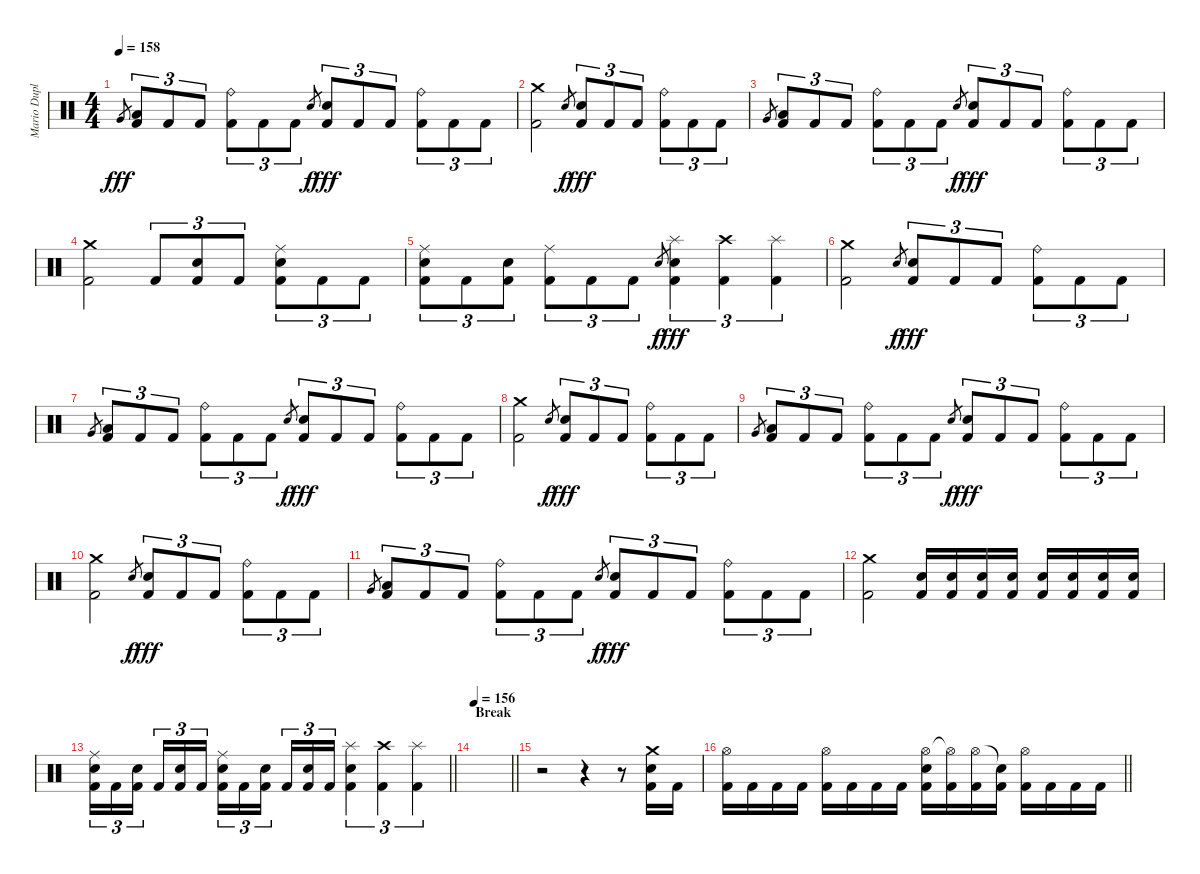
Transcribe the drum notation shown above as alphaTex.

\track ("Mario Duplantier" "Mario Dupl") {instrument percussion}
\staff {score}
\articulation defaults
\ts (4 4)
\tempo 158
\clef neutral
\ks c "Very Low Tom (hit)".8{gr dy fff}
("Low Tom (hit)" "Kick (hit) 2").8{tu (3 2)} "Kick (hit) 2".8{tu (3 2)} "Kick (hit) 2".8{tu (3 2)} ("Ride (bell)" "Kick (hit) 2").8{tu (3 2)} "Kick (hit) 2".8{tu (3 2)} "Kick (hit) 2".8{tu (3 2)} "Electric Snare (hit)".8{gr dy f} ("Electric Snare (hit)" "Kick (hit) 2").8{tu (3 2) dy fff} "Kick (hit) 2".8{tu (3 2)} "Kick (hit) 2".8{tu (3 2)} ("Ride (bell)" "Kick (hit) 2").8{tu (3 2)} "Kick (hit) 2".8{tu (3 2)} "Kick (hit) 2".8{tu (3 2)} |
("Crash medium (hit)" "Kick (hit) 2").2 "Electric Snare (hit)".8{gr dy f} ("Electric Snare (hit)" "Kick (hit) 2").8{tu (3 2) dy fff} "Kick (hit) 2".8{tu (3 2)} "Kick (hit) 2".8{tu (3 2)} ("Ride (bell)" "Kick (hit) 2").8{tu (3 2)} "Kick (hit) 2".8{tu (3 2)} "Kick (hit) 2".8{tu (3 2)} |
"Very Low Tom (hit)".8{gr} ("Low Tom (hit)" "Kick (hit) 2").8{tu (3 2)} "Kick (hit) 2".8{tu (3 2)} "Kick (hit) 2".8{tu (3 2)} ("Ride (bell)" "Kick (hit) 2").8{tu (3 2)} "Kick (hit) 2".8{tu (3 2)} "Kick (hit) 2".8{tu (3 2)} "Electric Snare (hit)".8{gr dy f} ("Electric Snare (hit)" "Kick (hit) 2").8{tu (3 2) dy fff} "Kick (hit) 2".8{tu (3 2)} "Kick (hit) 2".8{tu (3 2)} ("Ride (bell)" "Kick (hit) 2").8{tu (3 2)} "Kick (hit) 2".8{tu (3 2)} "Kick (hit) 2".8{tu (3 2)} |
("Crash medium (hit)" "Kick (hit) 2").2 "Kick (hit) 2".8{tu (3 2)} ("Electric Snare (hit)" "Kick (hit) 2").8{tu (3 2)} "Kick (hit) 2".8{tu (3 2)} ("Ride (middle)" "Electric Snare (hit)" "Kick (hit) 2").8{tu (3 2)} "Kick (hit) 2".8{tu (3 2)} "Kick (hit) 2".8{tu (3 2)} |
("Ride (middle)" "Electric Snare (hit)" "Kick (hit) 2").8{tu (3 2)} "Kick (hit) 2".8{tu (3 2)} ("Electric Snare (hit)" "Kick (hit) 2").8{tu (3 2)} ("Ride (middle)" "Kick (hit) 2").8{tu (3 2)} "Kick (hit) 2".8{tu (3 2)} "Kick (hit) 2".8{tu (3 2)} "Electric Snare (hit)".8{gr dy f} ("Splash (hit)" "Electric Snare (hit)" "Kick (hit) 2").4{tu (3 2) dy fff} ("Crash high (hit)" "Kick (hit) 2").4{tu (3 2)} ("Splash (hit)" "Kick (hit) 2").4{tu (3 2)} |
("Crash medium (hit)" "Kick (hit) 2").2 "Electric Snare (hit)".8{gr dy f} ("Electric Snare (hit)" "Kick (hit) 2").8{tu (3 2) dy fff} "Kick (hit) 2".8{tu (3 2)} "Kick (hit) 2".8{tu (3 2)} ("Ride (bell)" "Kick (hit) 2").8{tu (3 2)} "Kick (hit) 2".8{tu (3 2)} "Kick (hit) 2".8{tu (3 2)} |
"Very Low Tom (hit)".8{gr} ("Low Tom (hit)" "Kick (hit) 2").8{tu (3 2)} "Kick (hit) 2".8{tu (3 2)} "Kick (hit) 2".8{tu (3 2)} ("Ride (bell)" "Kick (hit) 2").8{tu (3 2)} "Kick (hit) 2".8{tu (3 2)} "Kick (hit) 2".8{tu (3 2)} "Electric Snare (hit)".8{gr dy f} ("Electric Snare (hit)" "Kick (hit) 2").8{tu (3 2) dy fff} "Kick (hit) 2".8{tu (3 2)} "Kick (hit) 2".8{tu (3 2)} ("Ride (bell)" "Kick (hit) 2").8{tu (3 2)} "Kick (hit) 2".8{tu (3 2)} "Kick (hit) 2".8{tu (3 2)} |
("Crash medium (hit)" "Kick (hit) 2").2 "Electric Snare (hit)".8{gr dy f} ("Electric Snare (hit)" "Kick (hit) 2").8{tu (3 2) dy fff} "Kick (hit) 2".8{tu (3 2)} "Kick (hit) 2".8{tu (3 2)} ("Ride (bell)" "Kick (hit) 2").8{tu (3 2)} "Kick (hit) 2".8{tu (3 2)} "Kick (hit) 2".8{tu (3 2)} |
"Very Low Tom (hit)".8{gr} ("Low Tom (hit)" "Kick (hit) 2").8{tu (3 2)} "Kick (hit) 2".8{tu (3 2)} "Kick (hit) 2".8{tu (3 2)} ("Ride (bell)" "Kick (hit) 2").8{tu (3 2)} "Kick (hit) 2".8{tu (3 2)} "Kick (hit) 2".8{tu (3 2)} "Electric Snare (hit)".8{gr dy f} ("Electric Snare (hit)" "Kick (hit) 2").8{tu (3 2) dy fff} "Kick (hit) 2".8{tu (3 2)} "Kick (hit) 2".8{tu (3 2)} ("Ride (bell)" "Kick (hit) 2").8{tu (3 2)} "Kick (hit) 2".8{tu (3 2)} "Kick (hit) 2".8{tu (3 2)} |
("Crash medium (hit)" "Kick (hit) 2").2 "Electric Snare (hit)".8{gr dy f} ("Electric Snare (hit)" "Kick (hit) 2").8{tu (3 2) dy fff} "Kick (hit) 2".8{tu (3 2)} "Kick (hit) 2".8{tu (3 2)} ("Ride (bell)" "Kick (hit) 2").8{tu (3 2)} "Kick (hit) 2".8{tu (3 2)} "Kick (hit) 2".8{tu (3 2)} |
"Very Low Tom (hit)".8{gr} ("Low Tom (hit)" "Kick (hit) 2").8{tu (3 2)} "Kick (hit) 2".8{tu (3 2)} "Kick (hit) 2".8{tu (3 2)} ("Ride (bell)" "Kick (hit) 2").8{tu (3 2)} "Kick (hit) 2".8{tu (3 2)} "Kick (hit) 2".8{tu (3 2)} "Electric Snare (hit)".8{gr dy f} ("Electric Snare (hit)" "Kick (hit) 2").8{tu (3 2) dy fff} "Kick (hit) 2".8{tu (3 2)} "Kick (hit) 2".8{tu (3 2)} ("Ride (bell)" "Kick (hit) 2").8{tu (3 2)} "Kick (hit) 2".8{tu (3 2)} "Kick (hit) 2".8{tu (3 2)} |
("Crash medium (hit)" "Kick (hit) 2").2 ("Electric Snare (hit)" "Kick (hit) 2").16 ("Electric Snare (hit)" "Kick (hit) 2").16 ("Electric Snare (hit)" "Kick (hit) 2").16 ("Electric Snare (hit)" "Kick (hit) 2").16 ("Electric Snare (hit)" "Kick (hit) 2").16 ("Electric Snare (hit)" "Kick (hit) 2").16 ("Electric Snare (hit)" "Kick (hit) 2").16 ("Electric Snare (hit)" "Kick (hit) 2").16 |
\barLineRight lightlight
("Ride (middle)" "Electric Snare (hit)" "Kick (hit) 2").16{tu (3 2)} "Kick (hit) 2".16{tu (3 2)} ("Electric Snare (hit)" "Kick (hit) 2").16{tu (3 2) beam splitsecondary} "Kick (hit) 2".16{tu (3 2)} ("Electric Snare (hit)" "Kick (hit) 2").16{tu (3 2)} "Kick (hit) 2".16{tu (3 2)} ("Ride (middle)" "Electric Snare (hit)" "Kick (hit) 2").16{tu (3 2)} "Kick (hit) 2".16{tu (3 2)} ("Electric Snare (hit)" "Kick (hit) 2").16{tu (3 2) beam splitsecondary} "Kick (hit) 2".16{tu (3 2)} ("Electric Snare (hit)" "Kick (hit) 2").16{tu (3 2)} "Kick (hit) 2".16{tu (3 2)} ("Splash (hit)" "Electric Snare (hit)" "Kick (hit) 2").4{tu (3 2)} ("Crash high (hit)" "Kick (hit) 2").4{tu (3 2)} ("Splash (hit)" "Kick (hit) 2").4{tu (3 2)} |
\section ("" "Break")
\tempo 156
\barLineRight lightlight
|
r.2 r.4 r.8 ("Crash medium (hit)" "Electric Snare (hit)" "Kick (hit) 2").16 "Kick (hit) 2".16 |
\barLineRight lightlight
("Hi-Hat (open)" "Kick (hit) 2").16 "Kick (hit) 2".16 "Kick (hit) 2".16 "Kick (hit) 2".16 ("Hi-Hat (open)" "Kick (hit) 2").16 "Kick (hit) 2".16 "Kick (hit) 2".16 "Kick (hit) 2".16 ("Hi-Hat (open)" "Electric Snare (hit)" "Kick (hit) 2").16 ("Hi-Hat (open)"{t} "Kick (hit) 2").16 ("Hi-Hat (open)" "Kick (hit) 2").16 ("Snare (hit)"{t} "Kick (hit) 2").16 ("Hi-Hat (open)" "Kick (hit) 2").16 "Kick (hit) 2".16 "Kick (hit) 2".16 "Kick (hit) 2".16
